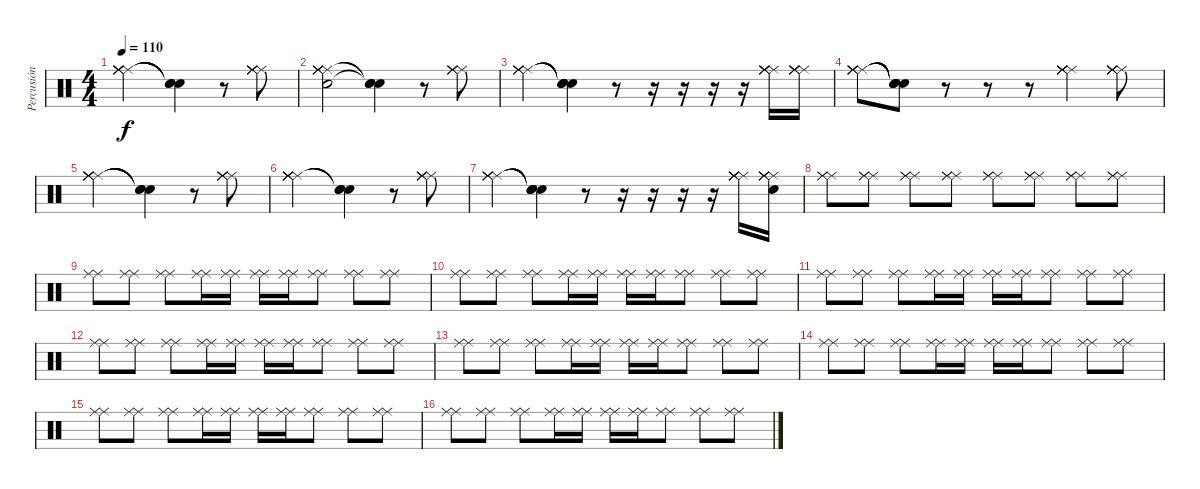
\track ("Percusión" "Percusión") {instrument percussion}
\staff {score}
\articulation defaults
\ts (4 4)
\tempo 110
\clef neutral
\ks c
("Ride (middle)" "Ride (middle)" "Ride (middle)" "Ride (middle)" "Ride (middle)" "Ride (middle)").2{dy f} ("Snare (hit)"{t} "Snare (hit)"{t} "Snare (hit)"{t}).4 r.8 ("Ride (middle)" "Ride (middle)" "Ride (middle)" "Ride (middle)" "Ride (middle)").8 |
("Ride (middle)" "Snare (hit)" "Ride (middle)" "Ride (middle)" "Ride (middle)" "Ride (middle)").2 ("Snare (hit)"{t} "Snare (hit)"{t} "Snare (hit)"{t}).4 r.8 ("Ride (middle)" "Ride (middle)" "Ride (middle)" "Ride (middle)" "Ride (middle)").8 |
("Ride (middle)" "Ride (middle)" "Ride (middle)" "Ride (middle)" "Ride (middle)").4 ("Snare (hit)"{t} "Snare (hit)"{t} "Snare (hit)"{t} "Snare (hit)"{t}).4 r.8 r.16 r.16 r.16 r.16 ("Ride (middle)" "Ride (middle)" "Ride (middle)" "Ride (middle)" "Ride (middle)" "Ride (middle)").16 ("Ride (middle)" "Ride (middle)" "Ride (middle)" "Ride (middle)" "Ride (middle)" "Ride (middle)").16 |
("Ride (middle)" "Ride (middle)" "Ride (middle)" "Ride (middle)" "Ride (middle)" "Ride (middle)").8 ("Snare (hit)"{t} "Snare (hit)"{t} "Snare (hit)"{t} "Snare (hit)"{t} "Snare (hit)"{t}).8 r.8 r.8 r.8 ("Ride (middle)" "Ride (middle)" "Ride (middle)" "Ride (middle)" "Ride (middle)" "Ride (middle)").4 ("Ride (middle)" "Ride (middle)" "Ride (middle)" "Ride (middle)" "Ride (middle)" "Ride (middle)").8 |
("Ride (middle)" "Ride (middle)" "Ride (middle)" "Ride (middle)" "Ride (middle)" "Ride (middle)").2 ("Snare (hit)"{t} "Snare (hit)"{t} "Snare (hit)"{t}).4 r.8 ("Ride (middle)" "Ride (middle)" "Ride (middle)" "Ride (middle)" "Ride (middle)").8 |
("Ride (middle)" "Ride (middle)" "Ride (middle)" "Ride (middle)" "Ride (middle)" "Ride (middle)").2 ("Snare (hit)"{t} "Snare (hit)"{t} "Snare (hit)"{t}).4 r.8 ("Ride (middle)" "Ride (middle)" "Ride (middle)" "Ride (middle)" "Ride (middle)").8 |
("Ride (middle)" "Ride (middle)" "Ride (middle)" "Ride (middle)" "Ride (middle)").4 ("Snare (hit)"{t} "Snare (hit)"{t} "Snare (hit)"{t} "Snare (hit)"{t}).4 r.8 r.16 r.16 r.16 r.16 ("Ride (middle)" "Ride (middle)" "Ride (middle)" "Ride (middle)" "Ride (middle)" "Ride (middle)").16 ("Ride (middle)" "Ride (middle)" "Ride (middle)" "Ride (middle)" "Ride (middle)" "Snare (hit)").16 |
("Ride (middle)" "Ride (middle)" "Ride (middle)").8 ("Ride (middle)" "Ride (middle)" "Ride (middle)").8 ("Ride (middle)" "Ride (middle)" "Ride (middle)").8 ("Ride (middle)" "Ride (middle)" "Ride (middle)").8 ("Ride (middle)" "Ride (middle)" "Ride (middle)").8 ("Ride (middle)" "Ride (middle)" "Ride (middle)").8 ("Ride (middle)" "Ride (middle)" "Ride (middle)").8 ("Ride (middle)" "Ride (middle)" "Ride (middle)").8 |
("Ride (middle)" "Ride (middle)").8 ("Ride (middle)" "Ride (middle)").8 ("Ride (middle)" "Ride (middle)").8 ("Ride (middle)" "Ride (middle)").16 ("Ride (middle)" "Ride (middle)").16 ("Ride (middle)" "Ride (middle)").16 ("Ride (middle)" "Ride (middle)").16 ("Ride (middle)" "Ride (middle)").8 ("Ride (middle)" "Ride (middle)").8 ("Ride (middle)" "Ride (middle)").8 |
("Ride (middle)" "Ride (middle)").8 ("Ride (middle)" "Ride (middle)").8 ("Ride (middle)" "Ride (middle)").8 ("Ride (middle)" "Ride (middle)").16 ("Ride (middle)" "Ride (middle)").16 ("Ride (middle)" "Ride (middle)").16 ("Ride (middle)" "Ride (middle)").16 ("Ride (middle)" "Ride (middle)").8 ("Ride (middle)" "Ride (middle)").8 ("Ride (middle)" "Ride (middle)").8 |
("Ride (middle)" "Ride (middle)").8 ("Ride (middle)" "Ride (middle)").8 ("Ride (middle)" "Ride (middle)").8 ("Ride (middle)" "Ride (middle)").16 ("Ride (middle)" "Ride (middle)").16 ("Ride (middle)" "Ride (middle)").16 ("Ride (middle)" "Ride (middle)").16 ("Ride (middle)" "Ride (middle)").8 ("Ride (middle)" "Ride (middle)").8 ("Ride (middle)" "Ride (middle)").8 |
("Ride (middle)" "Ride (middle)").8 ("Ride (middle)" "Ride (middle)").8 ("Ride (middle)" "Ride (middle)").8 ("Ride (middle)" "Ride (middle)").16 ("Ride (middle)" "Ride (middle)").16 ("Ride (middle)" "Ride (middle)").16 ("Ride (middle)" "Ride (middle)").16 ("Ride (middle)" "Ride (middle)").8 ("Ride (middle)" "Ride (middle)").8 ("Ride (middle)" "Ride (middle)").8 |
("Ride (middle)" "Ride (middle)").8 ("Ride (middle)" "Ride (middle)").8 ("Ride (middle)" "Ride (middle)").8 ("Ride (middle)" "Ride (middle)").16 ("Ride (middle)" "Ride (middle)").16 ("Ride (middle)" "Ride (middle)").16 ("Ride (middle)" "Ride (middle)").16 ("Ride (middle)" "Ride (middle)").8 ("Ride (middle)" "Ride (middle)").8 ("Ride (middle)" "Ride (middle)").8 |
("Ride (middle)" "Ride (middle)").8 ("Ride (middle)" "Ride (middle)").8 ("Ride (middle)" "Ride (middle)").8 ("Ride (middle)" "Ride (middle)").16 ("Ride (middle)" "Ride (middle)").16 ("Ride (middle)" "Ride (middle)").16 ("Ride (middle)" "Ride (middle)").16 ("Ride (middle)" "Ride (middle)").8 ("Ride (middle)" "Ride (middle)").8 ("Ride (middle)" "Ride (middle)").8 |
("Ride (middle)" "Ride (middle)").8 ("Ride (middle)" "Ride (middle)").8 ("Ride (middle)" "Ride (middle)").8 ("Ride (middle)" "Ride (middle)").16 ("Ride (middle)" "Ride (middle)").16 ("Ride (middle)" "Ride (middle)").16 ("Ride (middle)" "Ride (middle)").16 ("Ride (middle)" "Ride (middle)").8 ("Ride (middle)" "Ride (middle)").8 ("Ride (middle)" "Ride (middle)").8 |
("Ride (middle)" "Ride (middle)").8 ("Ride (middle)" "Ride (middle)").8 ("Ride (middle)" "Ride (middle)").8 ("Ride (middle)" "Ride (middle)").16 ("Ride (middle)" "Ride (middle)").16 ("Ride (middle)" "Ride (middle)").16 ("Ride (middle)" "Ride (middle)").16 ("Ride (middle)" "Ride (middle)").8 ("Ride (middle)" "Ride (middle)").8 ("Ride (middle)" "Ride (middle)").8
